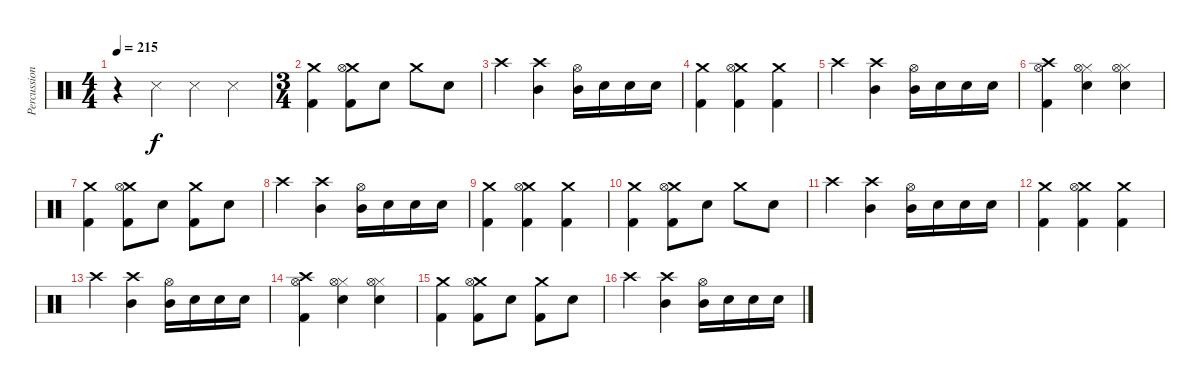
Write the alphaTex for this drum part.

\track ("Percussion" "Percussion") {instrument percussion}
\staff {score}
\articulation defaults
\ts (4 4)
\tempo 215
\clef neutral
\ks c
r.4{dy f} "Snare (side stick) 3".4 "Snare (side stick) 3".4 "Snare (side stick) 3".4 |
\ts (3 4)
("Crash medium (hit)" "Kick (hit) 2").4 ("Crash medium (hit)" "Hi-Hat (open)" "Kick (hit) 2").8 "Electric Snare (hit)".8 "Crash medium (hit)".8 "Electric Snare (hit)".8 |
"Crash high (hit)".4 ("Crash high (hit)" "Mid Tom (hit)").4 ("Hi-Hat (open)" "Mid Tom (hit)").16 "Electric Snare (hit)".16 "Electric Snare (hit)".16 "Electric Snare (hit)".16 |
("Crash medium (hit)" "Kick (hit) 2").4 ("Crash medium (hit)" "Hi-Hat (open)" "Kick (hit) 2").4 ("Crash medium (hit)" "Kick (hit) 2").4 |
"Crash high (hit)".4 ("Crash high (hit)" "Mid Tom (hit)").4 ("Hi-Hat (open)" "Mid Tom (hit)").16 "Electric Snare (hit)".16 "Electric Snare (hit)".16 "Electric Snare (hit)".16 |
("Hi-Hat (open)" "Crash high (hit)" "Kick (hit) 2").4 ("Electric Snare (hit)" "Hi-Hat (closed)" "Hi-Hat (open)").4 ("Electric Snare (hit)" "Hi-Hat (closed)" "Hi-Hat (open)").4 |
("Crash medium (hit)" "Kick (hit) 2").4 ("Crash medium (hit)" "Hi-Hat (open)" "Kick (hit) 2").8 "Electric Snare (hit)".8 ("Crash medium (hit)" "Kick (hit) 2").8 "Electric Snare (hit)".8 |
"Crash high (hit)".4 ("Crash high (hit)" "Mid Tom (hit)").4 ("Hi-Hat (open)" "Mid Tom (hit)").16 "Electric Snare (hit)".16 "Electric Snare (hit)".16 "Electric Snare (hit)".16 |
("Crash medium (hit)" "Kick (hit) 2").4 ("Crash medium (hit)" "Hi-Hat (open)" "Kick (hit) 2").4 ("Crash medium (hit)" "Kick (hit) 2").4 |
("Crash medium (hit)" "Kick (hit) 2").4 ("Crash medium (hit)" "Hi-Hat (open)" "Kick (hit) 2").8 "Electric Snare (hit)".8 "Crash medium (hit)".8 "Electric Snare (hit)".8 |
"Crash high (hit)".4 ("Crash high (hit)" "Mid Tom (hit)").4 ("Hi-Hat (open)" "Mid Tom (hit)").16 "Electric Snare (hit)".16 "Electric Snare (hit)".16 "Electric Snare (hit)".16 |
("Crash medium (hit)" "Kick (hit) 2").4 ("Crash medium (hit)" "Hi-Hat (open)" "Kick (hit) 2").4 ("Crash medium (hit)" "Kick (hit) 2").4 |
"Crash high (hit)".4 ("Crash high (hit)" "Mid Tom (hit)").4 ("Hi-Hat (open)" "Mid Tom (hit)").16 "Electric Snare (hit)".16 "Electric Snare (hit)".16 "Electric Snare (hit)".16 |
("Hi-Hat (open)" "Crash high (hit)" "Kick (hit) 2").4 ("Electric Snare (hit)" "Hi-Hat (closed)" "Hi-Hat (open)").4 ("Electric Snare (hit)" "Hi-Hat (closed)" "Hi-Hat (open)").4 |
("Crash medium (hit)" "Kick (hit) 2").4 ("Crash medium (hit)" "Hi-Hat (open)" "Kick (hit) 2").8 "Electric Snare (hit)".8 ("Crash medium (hit)" "Kick (hit) 2").8 "Electric Snare (hit)".8 |
"Crash high (hit)".4 ("Crash high (hit)" "Mid Tom (hit)").4 ("Hi-Hat (open)" "Mid Tom (hit)").16 "Electric Snare (hit)".16 "Electric Snare (hit)".16 "Electric Snare (hit)".16
